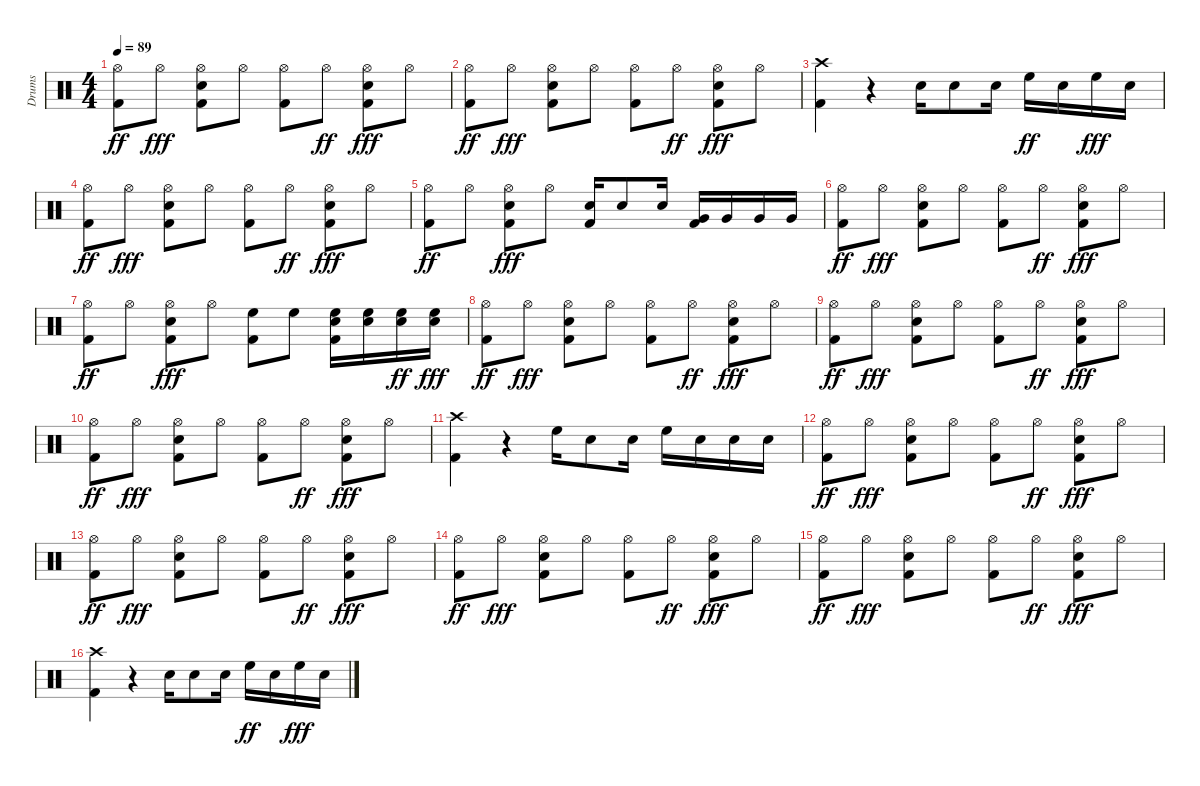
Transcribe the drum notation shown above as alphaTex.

\track ("Drums" "Drums") {instrument percussion}
\staff {score}
\articulation defaults
\ts (4 4)
\tempo 89
\clef neutral
\ks c
("Kick (hit) 2" "Hi-Hat (open)").8{dy ff} "Hi-Hat (open)".8{dy fff} ("Kick (hit) 2" "Snare (hit) 2" "Hi-Hat (open)").8 "Hi-Hat (open)".8 ("Kick (hit) 2" "Hi-Hat (open)").8 "Hi-Hat (open)".8{dy ff} ("Kick (hit) 2" "Hi-Hat (open)" "Snare (hit) 2").8{dy fff} "Hi-Hat (open)".8 |
("Kick (hit) 2" "Hi-Hat (open)").8{dy ff} "Hi-Hat (open)".8{dy fff} ("Kick (hit) 2" "Snare (hit) 2" "Hi-Hat (open)").8 "Hi-Hat (open)".8 ("Kick (hit) 2" "Hi-Hat (open)").8 "Hi-Hat (open)".8{dy ff} ("Kick (hit) 2" "Hi-Hat (open)" "Snare (hit) 2").8{dy fff} "Hi-Hat (open)".8 |
("Crash high (hit)" "Kick (hit) 2").4 r.4 "Snare (hit) 2".16 "Snare (hit) 2".8 "Snare (hit) 2".16 "High Floor Tom (hit)".16{dy ff} "Snare (hit) 2".16 "High Floor Tom (hit)".16{dy fff} "Snare (hit) 2".16 |
("Kick (hit) 2" "Hi-Hat (open)").8{dy ff} "Hi-Hat (open)".8{dy fff} ("Kick (hit) 2" "Snare (hit) 2" "Hi-Hat (open)").8 "Hi-Hat (open)".8 ("Kick (hit) 2" "Hi-Hat (open)").8 "Hi-Hat (open)".8{dy ff} ("Kick (hit) 2" "Hi-Hat (open)" "Snare (hit) 2").8{dy fff} "Hi-Hat (open)".8 |
("Kick (hit) 2" "Hi-Hat (open)").8{dy ff} "Hi-Hat (open)".8 ("Kick (hit) 2" "Hi-Hat (open)" "Snare (hit) 2").8{dy fff} "Hi-Hat (open)".8 ("Kick (hit) 2" "Snare (hit) 2").16 "Snare (hit) 2".8 "Snare (hit) 2".16 ("Kick (hit) 2" "Very Low Tom (hit)").16 "Very Low Tom (hit)".16 "Very Low Tom (hit)".16 "Very Low Tom (hit)".16 |
("Kick (hit) 2" "Hi-Hat (open)").8{dy ff} "Hi-Hat (open)".8{dy fff} ("Kick (hit) 2" "Snare (hit) 2" "Hi-Hat (open)").8 "Hi-Hat (open)".8 ("Kick (hit) 2" "Hi-Hat (open)").8 "Hi-Hat (open)".8{dy ff} ("Kick (hit) 2" "Hi-Hat (open)" "Snare (hit) 2").8{dy fff} "Hi-Hat (open)".8 |
("Kick (hit) 2" "Hi-Hat (open)").8{dy ff} "Hi-Hat (open)".8 ("Kick (hit) 2" "Snare (hit) 2" "Hi-Hat (open)").8{dy fff} "Hi-Hat (open)".8 ("Kick (hit) 2" "High Floor Tom (hit)").8 "High Floor Tom (hit)".8 ("Kick (hit) 2" "High Floor Tom (hit)" "Snare (hit) 2").16 ("High Floor Tom (hit)" "Snare (hit) 2").16 ("Snare (hit) 2" "High Floor Tom (hit)").16{dy ff} ("High Floor Tom (hit)" "Snare (hit) 2").16{dy fff} |
("Kick (hit) 2" "Hi-Hat (open)").8{dy ff} "Hi-Hat (open)".8{dy fff} ("Kick (hit) 2" "Snare (hit) 2" "Hi-Hat (open)").8 "Hi-Hat (open)".8 ("Kick (hit) 2" "Hi-Hat (open)").8 "Hi-Hat (open)".8{dy ff} ("Kick (hit) 2" "Hi-Hat (open)" "Snare (hit) 2").8{dy fff} "Hi-Hat (open)".8 |
("Kick (hit) 2" "Hi-Hat (open)").8{dy ff} "Hi-Hat (open)".8{dy fff} ("Kick (hit) 2" "Snare (hit) 2" "Hi-Hat (open)").8 "Hi-Hat (open)".8 ("Kick (hit) 2" "Hi-Hat (open)").8 "Hi-Hat (open)".8{dy ff} ("Kick (hit) 2" "Hi-Hat (open)" "Snare (hit) 2").8{dy fff} "Hi-Hat (open)".8 |
("Kick (hit) 2" "Hi-Hat (open)").8{dy ff} "Hi-Hat (open)".8{dy fff} ("Kick (hit) 2" "Snare (hit) 2" "Hi-Hat (open)").8 "Hi-Hat (open)".8 ("Kick (hit) 2" "Hi-Hat (open)").8 "Hi-Hat (open)".8{dy ff} ("Kick (hit) 2" "Hi-Hat (open)" "Snare (hit) 2").8{dy fff} "Hi-Hat (open)".8 |
("Crash high (hit)" "Kick (hit) 2").4 r.4 "High Floor Tom (hit)".16 "Snare (hit) 2".8 "Snare (hit) 2".16 "High Floor Tom (hit)".16 "Snare (hit) 2".16 "Snare (hit) 2".16 "Snare (hit) 2".16 |
("Kick (hit) 2" "Hi-Hat (open)").8{dy ff} "Hi-Hat (open)".8{dy fff} ("Kick (hit) 2" "Snare (hit) 2" "Hi-Hat (open)").8 "Hi-Hat (open)".8 ("Kick (hit) 2" "Hi-Hat (open)").8 "Hi-Hat (open)".8{dy ff} ("Kick (hit) 2" "Hi-Hat (open)" "Snare (hit) 2").8{dy fff} "Hi-Hat (open)".8 |
("Kick (hit) 2" "Hi-Hat (open)").8{dy ff} "Hi-Hat (open)".8{dy fff} ("Kick (hit) 2" "Snare (hit) 2" "Hi-Hat (open)").8 "Hi-Hat (open)".8 ("Kick (hit) 2" "Hi-Hat (open)").8 "Hi-Hat (open)".8{dy ff} ("Kick (hit) 2" "Hi-Hat (open)" "Snare (hit) 2").8{dy fff} "Hi-Hat (open)".8 |
("Kick (hit) 2" "Hi-Hat (open)").8{dy ff} "Hi-Hat (open)".8{dy fff} ("Kick (hit) 2" "Snare (hit) 2" "Hi-Hat (open)").8 "Hi-Hat (open)".8 ("Kick (hit) 2" "Hi-Hat (open)").8 "Hi-Hat (open)".8{dy ff} ("Kick (hit) 2" "Hi-Hat (open)" "Snare (hit) 2").8{dy fff} "Hi-Hat (open)".8 |
("Kick (hit) 2" "Hi-Hat (open)").8{dy ff} "Hi-Hat (open)".8{dy fff} ("Kick (hit) 2" "Snare (hit) 2" "Hi-Hat (open)").8 "Hi-Hat (open)".8 ("Kick (hit) 2" "Hi-Hat (open)").8 "Hi-Hat (open)".8{dy ff} ("Kick (hit) 2" "Hi-Hat (open)" "Snare (hit) 2").8{dy fff} "Hi-Hat (open)".8 |
("Crash high (hit)" "Kick (hit) 2").4 r.4 "Snare (hit) 2".16 "Snare (hit) 2".8 "Snare (hit) 2".16 "High Floor Tom (hit)".16{dy ff} "Snare (hit) 2".16 "High Floor Tom (hit)".16{dy fff} "Snare (hit) 2".16
